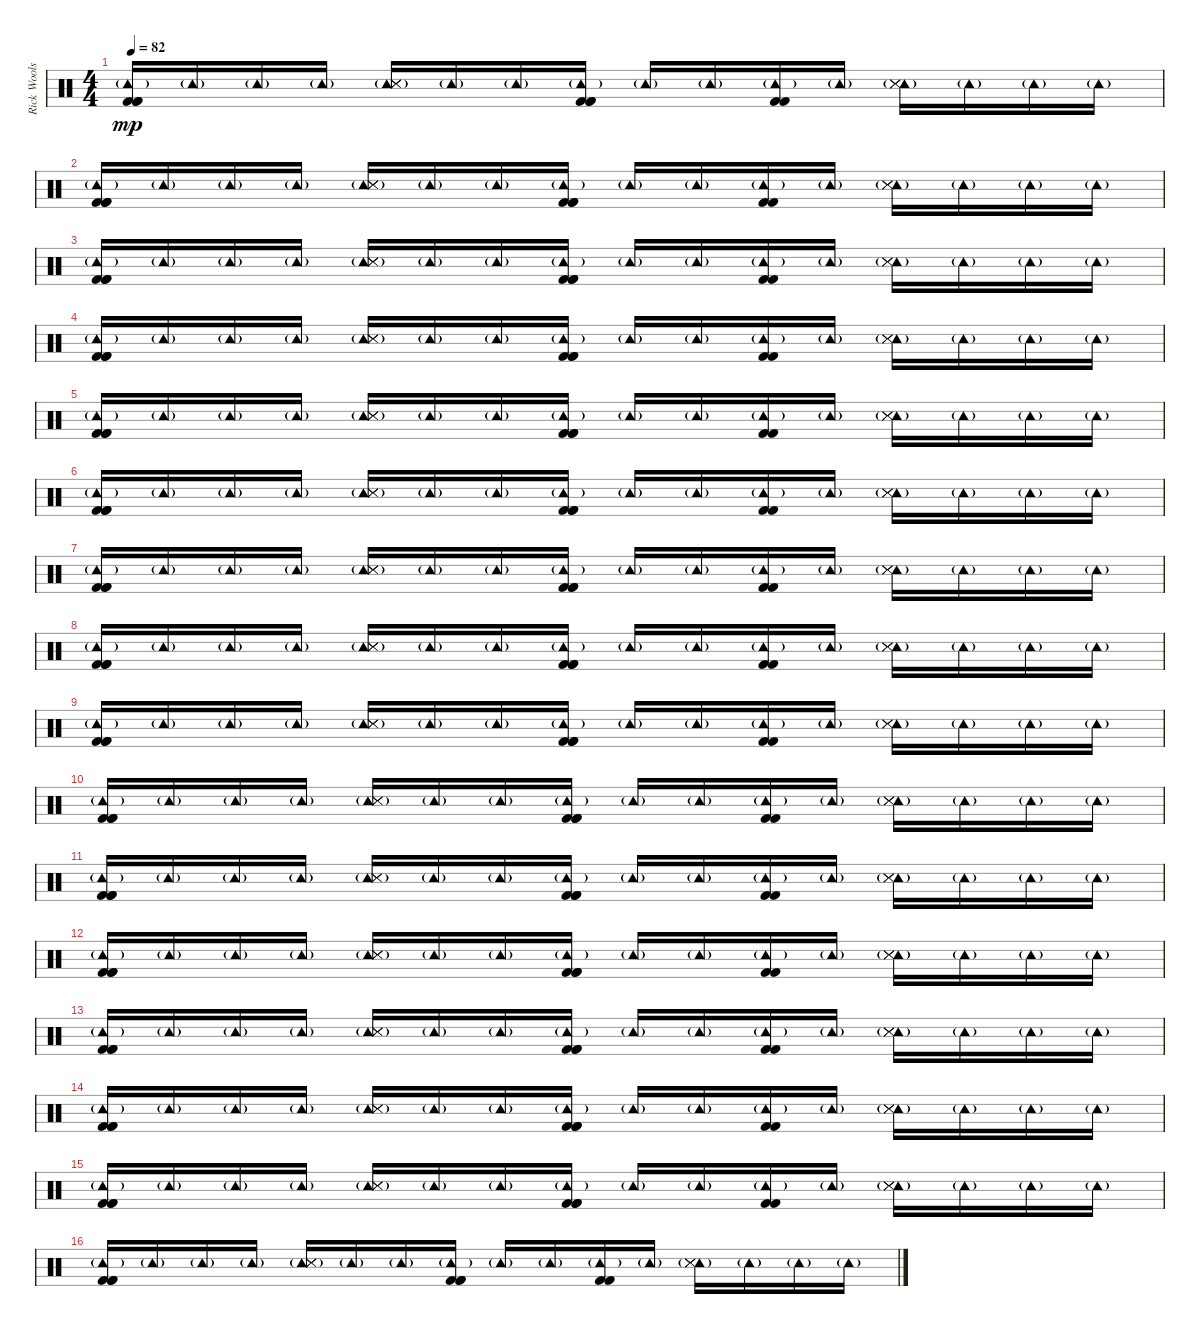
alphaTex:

\track ("Rick Woolstenhulme [Drums]" "Rick Wools") {instrument percussion}
\staff {score}
\articulation defaults
\ts (4 4)
\tempo 82
\clef neutral
\ks c
("Tambourine (hit)"{g} "Kick (hit) 2" "Kick (hit) 2" "Kick (hit) 2").16{dy mp} "Tambourine (hit)"{g}.16 "Tambourine (hit)"{g}.16 "Tambourine (hit)"{g}.16 ("Tambourine (hit)"{g} "Snare (side stick) 3" "Snare (side stick) 3" "Snare (side stick) 3").16 "Tambourine (hit)"{g}.16 "Tambourine (hit)"{g}.16 ("Tambourine (hit)"{g} "Kick (hit) 2" "Kick (hit) 2" "Kick (hit) 2").16 "Tambourine (hit)"{g}.16 "Tambourine (hit)"{g}.16 ("Tambourine (hit)"{g} "Kick (hit) 2" "Kick (hit) 2").16 "Tambourine (hit)"{g}.16 ("Tambourine (hit)"{g} "Snare (side stick) 3" "Snare (side stick) 3" "Snare (side stick) 3").16 "Tambourine (hit)"{g}.16 "Tambourine (hit)"{g}.16 "Tambourine (hit)"{g}.16 |
("Tambourine (hit)"{g} "Kick (hit) 2" "Kick (hit) 2" "Kick (hit) 2").16 "Tambourine (hit)"{g}.16 "Tambourine (hit)"{g}.16 "Tambourine (hit)"{g}.16 ("Tambourine (hit)"{g} "Snare (side stick) 3" "Snare (side stick) 3" "Snare (side stick) 3").16 "Tambourine (hit)"{g}.16 "Tambourine (hit)"{g}.16 ("Tambourine (hit)"{g} "Kick (hit) 2" "Kick (hit) 2" "Kick (hit) 2").16 "Tambourine (hit)"{g}.16 "Tambourine (hit)"{g}.16 ("Tambourine (hit)"{g} "Kick (hit) 2" "Kick (hit) 2").16 "Tambourine (hit)"{g}.16 ("Tambourine (hit)"{g} "Snare (side stick) 3" "Snare (side stick) 3" "Snare (side stick) 3").16 "Tambourine (hit)"{g}.16 "Tambourine (hit)"{g}.16 "Tambourine (hit)"{g}.16 |
("Tambourine (hit)"{g} "Kick (hit) 2" "Kick (hit) 2" "Kick (hit) 2").16 "Tambourine (hit)"{g}.16 "Tambourine (hit)"{g}.16 "Tambourine (hit)"{g}.16 ("Tambourine (hit)"{g} "Snare (side stick) 3" "Snare (side stick) 3" "Snare (side stick) 3").16 "Tambourine (hit)"{g}.16 "Tambourine (hit)"{g}.16 ("Tambourine (hit)"{g} "Kick (hit) 2" "Kick (hit) 2" "Kick (hit) 2").16 "Tambourine (hit)"{g}.16 "Tambourine (hit)"{g}.16 ("Tambourine (hit)"{g} "Kick (hit) 2" "Kick (hit) 2").16 "Tambourine (hit)"{g}.16 ("Tambourine (hit)"{g} "Snare (side stick) 3" "Snare (side stick) 3" "Snare (side stick) 3").16 "Tambourine (hit)"{g}.16 "Tambourine (hit)"{g}.16 "Tambourine (hit)"{g}.16 |
("Tambourine (hit)"{g} "Kick (hit) 2" "Kick (hit) 2" "Kick (hit) 2").16 "Tambourine (hit)"{g}.16 "Tambourine (hit)"{g}.16 "Tambourine (hit)"{g}.16 ("Tambourine (hit)"{g} "Snare (side stick) 3" "Snare (side stick) 3" "Snare (side stick) 3").16 "Tambourine (hit)"{g}.16 "Tambourine (hit)"{g}.16 ("Tambourine (hit)"{g} "Kick (hit) 2" "Kick (hit) 2" "Kick (hit) 2").16 "Tambourine (hit)"{g}.16 "Tambourine (hit)"{g}.16 ("Tambourine (hit)"{g} "Kick (hit) 2" "Kick (hit) 2").16 "Tambourine (hit)"{g}.16 ("Tambourine (hit)"{g} "Snare (side stick) 3" "Snare (side stick) 3" "Snare (side stick) 3").16 "Tambourine (hit)"{g}.16 "Tambourine (hit)"{g}.16 "Tambourine (hit)"{g}.16 |
("Tambourine (hit)"{g} "Kick (hit) 2" "Kick (hit) 2" "Kick (hit) 2").16 "Tambourine (hit)"{g}.16 "Tambourine (hit)"{g}.16 "Tambourine (hit)"{g}.16 ("Tambourine (hit)"{g} "Snare (side stick) 3" "Snare (side stick) 3" "Snare (side stick) 3").16 "Tambourine (hit)"{g}.16 "Tambourine (hit)"{g}.16 ("Tambourine (hit)"{g} "Kick (hit) 2" "Kick (hit) 2" "Kick (hit) 2").16 "Tambourine (hit)"{g}.16 "Tambourine (hit)"{g}.16 ("Tambourine (hit)"{g} "Kick (hit) 2" "Kick (hit) 2").16 "Tambourine (hit)"{g}.16 ("Tambourine (hit)"{g} "Snare (side stick) 3" "Snare (side stick) 3" "Snare (side stick) 3").16 "Tambourine (hit)"{g}.16 "Tambourine (hit)"{g}.16 "Tambourine (hit)"{g}.16 |
("Tambourine (hit)"{g} "Kick (hit) 2" "Kick (hit) 2" "Kick (hit) 2").16 "Tambourine (hit)"{g}.16 "Tambourine (hit)"{g}.16 "Tambourine (hit)"{g}.16 ("Tambourine (hit)"{g} "Snare (side stick) 3" "Snare (side stick) 3" "Snare (side stick) 3").16 "Tambourine (hit)"{g}.16 "Tambourine (hit)"{g}.16 ("Tambourine (hit)"{g} "Kick (hit) 2" "Kick (hit) 2" "Kick (hit) 2").16 "Tambourine (hit)"{g}.16 "Tambourine (hit)"{g}.16 ("Tambourine (hit)"{g} "Kick (hit) 2" "Kick (hit) 2").16 "Tambourine (hit)"{g}.16 ("Tambourine (hit)"{g} "Snare (side stick) 3" "Snare (side stick) 3" "Snare (side stick) 3").16 "Tambourine (hit)"{g}.16 "Tambourine (hit)"{g}.16 "Tambourine (hit)"{g}.16 |
("Tambourine (hit)"{g} "Kick (hit) 2" "Kick (hit) 2" "Kick (hit) 2").16 "Tambourine (hit)"{g}.16 "Tambourine (hit)"{g}.16 "Tambourine (hit)"{g}.16 ("Tambourine (hit)"{g} "Snare (side stick) 3" "Snare (side stick) 3" "Snare (side stick) 3").16 "Tambourine (hit)"{g}.16 "Tambourine (hit)"{g}.16 ("Tambourine (hit)"{g} "Kick (hit) 2" "Kick (hit) 2" "Kick (hit) 2").16 "Tambourine (hit)"{g}.16 "Tambourine (hit)"{g}.16 ("Tambourine (hit)"{g} "Kick (hit) 2" "Kick (hit) 2").16 "Tambourine (hit)"{g}.16 ("Tambourine (hit)"{g} "Snare (side stick) 3" "Snare (side stick) 3" "Snare (side stick) 3").16 "Tambourine (hit)"{g}.16 "Tambourine (hit)"{g}.16 "Tambourine (hit)"{g}.16 |
("Tambourine (hit)"{g} "Kick (hit) 2" "Kick (hit) 2" "Kick (hit) 2").16 "Tambourine (hit)"{g}.16 "Tambourine (hit)"{g}.16 "Tambourine (hit)"{g}.16 ("Tambourine (hit)"{g} "Snare (side stick) 3" "Snare (side stick) 3" "Snare (side stick) 3").16 "Tambourine (hit)"{g}.16 "Tambourine (hit)"{g}.16 ("Tambourine (hit)"{g} "Kick (hit) 2" "Kick (hit) 2" "Kick (hit) 2").16 "Tambourine (hit)"{g}.16 "Tambourine (hit)"{g}.16 ("Tambourine (hit)"{g} "Kick (hit) 2" "Kick (hit) 2").16 "Tambourine (hit)"{g}.16 ("Tambourine (hit)"{g} "Snare (side stick) 3" "Snare (side stick) 3" "Snare (side stick) 3").16 "Tambourine (hit)"{g}.16 "Tambourine (hit)"{g}.16 "Tambourine (hit)"{g}.16 |
("Tambourine (hit)"{g} "Kick (hit) 2" "Kick (hit) 2" "Kick (hit) 2").16 "Tambourine (hit)"{g}.16 "Tambourine (hit)"{g}.16 "Tambourine (hit)"{g}.16 ("Tambourine (hit)"{g} "Snare (side stick) 3" "Snare (side stick) 3" "Snare (side stick) 3").16 "Tambourine (hit)"{g}.16 "Tambourine (hit)"{g}.16 ("Tambourine (hit)"{g} "Kick (hit) 2" "Kick (hit) 2" "Kick (hit) 2").16 "Tambourine (hit)"{g}.16 "Tambourine (hit)"{g}.16 ("Tambourine (hit)"{g} "Kick (hit) 2" "Kick (hit) 2").16 "Tambourine (hit)"{g}.16 ("Tambourine (hit)"{g} "Snare (side stick) 3" "Snare (side stick) 3" "Snare (side stick) 3").16 "Tambourine (hit)"{g}.16 "Tambourine (hit)"{g}.16 "Tambourine (hit)"{g}.16 |
("Tambourine (hit)"{g} "Kick (hit) 2" "Kick (hit) 2" "Kick (hit) 2").16 "Tambourine (hit)"{g}.16 "Tambourine (hit)"{g}.16 "Tambourine (hit)"{g}.16 ("Tambourine (hit)"{g} "Snare (side stick) 3" "Snare (side stick) 3" "Snare (side stick) 3").16 "Tambourine (hit)"{g}.16 "Tambourine (hit)"{g}.16 ("Tambourine (hit)"{g} "Kick (hit) 2" "Kick (hit) 2" "Kick (hit) 2").16 "Tambourine (hit)"{g}.16 "Tambourine (hit)"{g}.16 ("Tambourine (hit)"{g} "Kick (hit) 2" "Kick (hit) 2").16 "Tambourine (hit)"{g}.16 ("Tambourine (hit)"{g} "Snare (side stick) 3" "Snare (side stick) 3" "Snare (side stick) 3").16 "Tambourine (hit)"{g}.16 "Tambourine (hit)"{g}.16 "Tambourine (hit)"{g}.16 |
("Tambourine (hit)"{g} "Kick (hit) 2" "Kick (hit) 2" "Kick (hit) 2").16 "Tambourine (hit)"{g}.16 "Tambourine (hit)"{g}.16 "Tambourine (hit)"{g}.16 ("Tambourine (hit)"{g} "Snare (side stick) 3" "Snare (side stick) 3" "Snare (side stick) 3").16 "Tambourine (hit)"{g}.16 "Tambourine (hit)"{g}.16 ("Tambourine (hit)"{g} "Kick (hit) 2" "Kick (hit) 2" "Kick (hit) 2").16 "Tambourine (hit)"{g}.16 "Tambourine (hit)"{g}.16 ("Tambourine (hit)"{g} "Kick (hit) 2" "Kick (hit) 2").16 "Tambourine (hit)"{g}.16 ("Tambourine (hit)"{g} "Snare (side stick) 3" "Snare (side stick) 3" "Snare (side stick) 3").16 "Tambourine (hit)"{g}.16 "Tambourine (hit)"{g}.16 "Tambourine (hit)"{g}.16 |
("Tambourine (hit)"{g} "Kick (hit) 2" "Kick (hit) 2" "Kick (hit) 2").16 "Tambourine (hit)"{g}.16 "Tambourine (hit)"{g}.16 "Tambourine (hit)"{g}.16 ("Tambourine (hit)"{g} "Snare (side stick) 3" "Snare (side stick) 3" "Snare (side stick) 3").16 "Tambourine (hit)"{g}.16 "Tambourine (hit)"{g}.16 ("Tambourine (hit)"{g} "Kick (hit) 2" "Kick (hit) 2" "Kick (hit) 2").16 "Tambourine (hit)"{g}.16 "Tambourine (hit)"{g}.16 ("Tambourine (hit)"{g} "Kick (hit) 2" "Kick (hit) 2").16 "Tambourine (hit)"{g}.16 ("Tambourine (hit)"{g} "Snare (side stick) 3" "Snare (side stick) 3" "Snare (side stick) 3").16 "Tambourine (hit)"{g}.16 "Tambourine (hit)"{g}.16 "Tambourine (hit)"{g}.16 |
("Tambourine (hit)"{g} "Kick (hit) 2" "Kick (hit) 2" "Kick (hit) 2").16 "Tambourine (hit)"{g}.16 "Tambourine (hit)"{g}.16 "Tambourine (hit)"{g}.16 ("Tambourine (hit)"{g} "Snare (side stick) 3" "Snare (side stick) 3" "Snare (side stick) 3").16 "Tambourine (hit)"{g}.16 "Tambourine (hit)"{g}.16 ("Tambourine (hit)"{g} "Kick (hit) 2" "Kick (hit) 2" "Kick (hit) 2").16 "Tambourine (hit)"{g}.16 "Tambourine (hit)"{g}.16 ("Tambourine (hit)"{g} "Kick (hit) 2" "Kick (hit) 2").16 "Tambourine (hit)"{g}.16 ("Tambourine (hit)"{g} "Snare (side stick) 3" "Snare (side stick) 3" "Snare (side stick) 3").16 "Tambourine (hit)"{g}.16 "Tambourine (hit)"{g}.16 "Tambourine (hit)"{g}.16 |
("Tambourine (hit)"{g} "Kick (hit) 2" "Kick (hit) 2" "Kick (hit) 2").16 "Tambourine (hit)"{g}.16 "Tambourine (hit)"{g}.16 "Tambourine (hit)"{g}.16 ("Tambourine (hit)"{g} "Snare (side stick) 3" "Snare (side stick) 3" "Snare (side stick) 3").16 "Tambourine (hit)"{g}.16 "Tambourine (hit)"{g}.16 ("Tambourine (hit)"{g} "Kick (hit) 2" "Kick (hit) 2" "Kick (hit) 2").16 "Tambourine (hit)"{g}.16 "Tambourine (hit)"{g}.16 ("Tambourine (hit)"{g} "Kick (hit) 2" "Kick (hit) 2").16 "Tambourine (hit)"{g}.16 ("Tambourine (hit)"{g} "Snare (side stick) 3" "Snare (side stick) 3" "Snare (side stick) 3").16 "Tambourine (hit)"{g}.16 "Tambourine (hit)"{g}.16 "Tambourine (hit)"{g}.16 |
("Tambourine (hit)"{g} "Kick (hit) 2" "Kick (hit) 2" "Kick (hit) 2").16 "Tambourine (hit)"{g}.16 "Tambourine (hit)"{g}.16 "Tambourine (hit)"{g}.16 ("Tambourine (hit)"{g} "Snare (side stick) 3" "Snare (side stick) 3" "Snare (side stick) 3").16 "Tambourine (hit)"{g}.16 "Tambourine (hit)"{g}.16 ("Tambourine (hit)"{g} "Kick (hit) 2" "Kick (hit) 2" "Kick (hit) 2").16 "Tambourine (hit)"{g}.16 "Tambourine (hit)"{g}.16 ("Tambourine (hit)"{g} "Kick (hit) 2" "Kick (hit) 2").16 "Tambourine (hit)"{g}.16 ("Tambourine (hit)"{g} "Snare (side stick) 3" "Snare (side stick) 3" "Snare (side stick) 3").16 "Tambourine (hit)"{g}.16 "Tambourine (hit)"{g}.16 "Tambourine (hit)"{g}.16 |
("Tambourine (hit)"{g} "Kick (hit) 2" "Kick (hit) 2" "Kick (hit) 2").16 "Tambourine (hit)"{g}.16 "Tambourine (hit)"{g}.16 "Tambourine (hit)"{g}.16 ("Tambourine (hit)"{g} "Snare (side stick) 3" "Snare (side stick) 3" "Snare (side stick) 3").16 "Tambourine (hit)"{g}.16 "Tambourine (hit)"{g}.16 ("Tambourine (hit)"{g} "Kick (hit) 2" "Kick (hit) 2" "Kick (hit) 2").16 "Tambourine (hit)"{g}.16 "Tambourine (hit)"{g}.16 ("Tambourine (hit)"{g} "Kick (hit) 2" "Kick (hit) 2").16 "Tambourine (hit)"{g}.16 ("Tambourine (hit)"{g} "Snare (side stick) 3" "Snare (side stick) 3" "Snare (side stick) 3").16 "Tambourine (hit)"{g}.16 "Tambourine (hit)"{g}.16 "Tambourine (hit)"{g}.16
